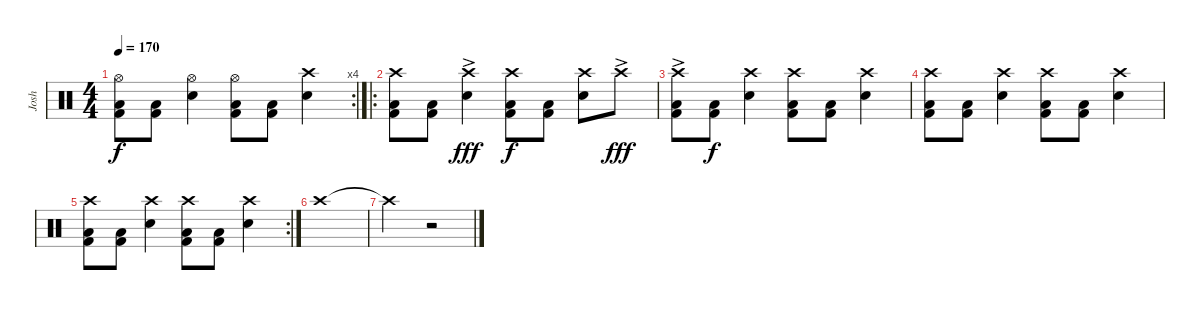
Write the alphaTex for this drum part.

\track ("Josh" "Josh") {instrument percussion}
\staff {score}
\articulation defaults
\rc 4
\ts (4 4)
\tempo 170
\clef neutral
\ks c
("Hi-Hat (open)" "Low Tom (hit)" "Kick (hit) 2").8{dy f} ("Low Tom (hit)" "Kick (hit) 2").8 ("Hi-Hat (open)" "Snare (hit) 2").4 ("Hi-Hat (open)" "Low Tom (hit)" "Kick (hit) 2").8 ("Low Tom (hit)" "Kick (hit) 2").8 ("Crash high (hit)" "Snare (hit) 2").4 |
\ro
("Crash high (hit)" "Low Tom (hit)" "Kick (hit) 2").8 ("Low Tom (hit)" "Kick (hit) 2").8 ("Crash high (hit)"{ac} "Snare (hit) 2").4{dy fff} ("Crash high (hit)" "Low Tom (hit)" "Kick (hit) 2").8{dy f} ("Low Tom (hit)" "Kick (hit) 2").8 ("Crash high (hit)" "Snare (hit) 2").8 "Crash high (hit)"{ac}.8{dy fff} |
("Crash high (hit)"{ac} "Low Tom (hit)" "Kick (hit) 2").8 ("Low Tom (hit)" "Kick (hit) 2").8{dy f} ("Crash high (hit)" "Snare (hit) 2").4 ("Crash high (hit)" "Low Tom (hit)" "Kick (hit) 2").8 ("Low Tom (hit)" "Kick (hit) 2").8 ("Crash high (hit)" "Snare (hit) 2").4 |
("Crash high (hit)" "Low Tom (hit)" "Kick (hit) 2").8 ("Low Tom (hit)" "Kick (hit) 2").8 ("Crash high (hit)" "Snare (hit) 2").4 ("Crash high (hit)" "Low Tom (hit)" "Kick (hit) 2").8 ("Low Tom (hit)" "Kick (hit) 2").8 ("Crash high (hit)" "Snare (hit) 2").4 |
\rc 2
("Crash high (hit)" "Low Tom (hit)" "Kick (hit) 2").8 ("Low Tom (hit)" "Kick (hit) 2").8 ("Crash high (hit)" "Snare (hit) 2").4 ("Crash high (hit)" "Low Tom (hit)" "Kick (hit) 2").8 ("Low Tom (hit)" "Kick (hit) 2").8 ("Crash high (hit)" "Snare (hit) 2").4 |
"Crash high (hit)".1 |
"Crash high (hit)"{t}.2 r.2
